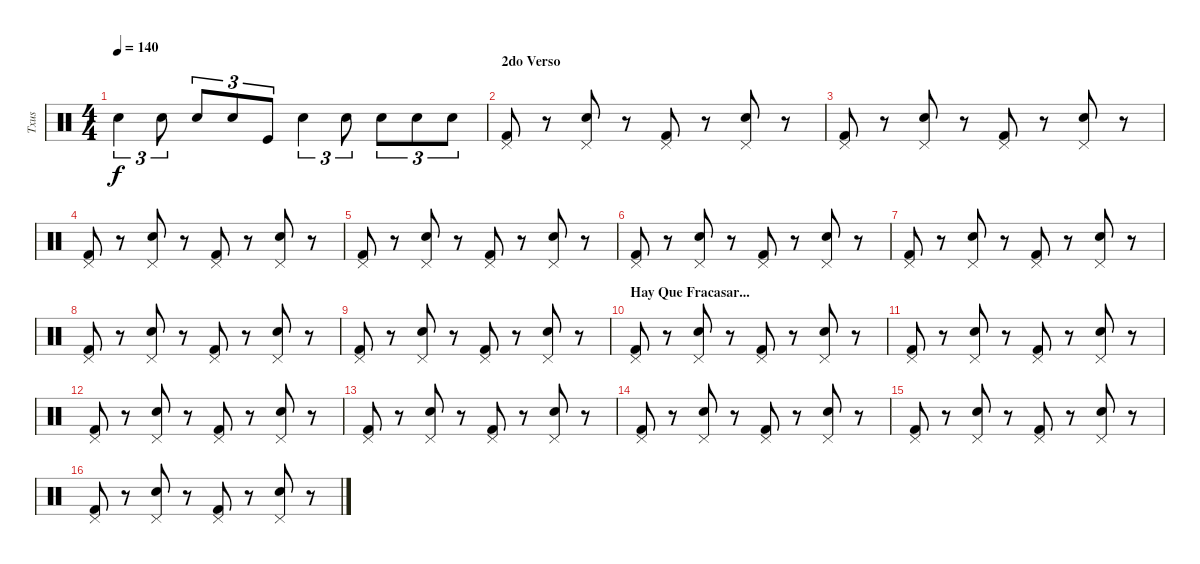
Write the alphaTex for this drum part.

\track ("Txus" "Txus") {instrument percussion}
\staff {score}
\articulation defaults
\ts (4 4)
\tempo 140
\clef neutral
\ks c "Snare (hit) 2".4{tu (3 2) dy f} "Snare (hit) 2".8{tu (3 2)} "Snare (hit) 2".8{tu (3 2)} "Snare (hit) 2".8{tu (3 2)} "Kick (hit)".8{tu (3 2)} "Snare (hit) 2".4{tu (3 2)} "Snare (hit) 2".8{tu (3 2)} "Snare (hit) 2".8{tu (3 2)} "Snare (hit) 2".8{tu (3 2)} "Snare (hit) 2".8{tu (3 2)}
|
\section ("" "2do Verso")
("Pedal Hi-Hat (hit)" "Kick (hit) 2").8 r.8 ("Pedal Hi-Hat (hit)" "Snare (hit) 2").8 r.8 ("Pedal Hi-Hat (hit)" "Kick (hit) 2").8 r.8 ("Pedal Hi-Hat (hit)" "Snare (hit) 2").8 r.8 |
("Pedal Hi-Hat (hit)" "Kick (hit) 2").8 r.8 ("Pedal Hi-Hat (hit)" "Snare (hit) 2").8 r.8 ("Pedal Hi-Hat (hit)" "Kick (hit) 2").8 r.8 ("Pedal Hi-Hat (hit)" "Snare (hit) 2").8 r.8 |
("Pedal Hi-Hat (hit)" "Kick (hit) 2").8 r.8 ("Pedal Hi-Hat (hit)" "Snare (hit) 2").8 r.8 ("Pedal Hi-Hat (hit)" "Kick (hit) 2").8 r.8 ("Pedal Hi-Hat (hit)" "Snare (hit) 2").8 r.8 |
("Pedal Hi-Hat (hit)" "Kick (hit) 2").8 r.8 ("Pedal Hi-Hat (hit)" "Snare (hit) 2").8 r.8 ("Pedal Hi-Hat (hit)" "Kick (hit) 2").8 r.8 ("Pedal Hi-Hat (hit)" "Snare (hit) 2").8 r.8 |
("Pedal Hi-Hat (hit)" "Kick (hit) 2").8 r.8 ("Pedal Hi-Hat (hit)" "Snare (hit) 2").8 r.8 ("Pedal Hi-Hat (hit)" "Kick (hit) 2").8 r.8 ("Pedal Hi-Hat (hit)" "Snare (hit) 2").8 r.8 |
("Pedal Hi-Hat (hit)" "Kick (hit) 2").8 r.8 ("Pedal Hi-Hat (hit)" "Snare (hit) 2").8 r.8 ("Pedal Hi-Hat (hit)" "Kick (hit) 2").8 r.8 ("Pedal Hi-Hat (hit)" "Snare (hit) 2").8 r.8 |
("Pedal Hi-Hat (hit)" "Kick (hit) 2").8 r.8 ("Pedal Hi-Hat (hit)" "Snare (hit) 2").8 r.8 ("Pedal Hi-Hat (hit)" "Kick (hit) 2").8 r.8 ("Pedal Hi-Hat (hit)" "Snare (hit) 2").8 r.8 |
("Pedal Hi-Hat (hit)" "Kick (hit) 2").8 r.8 ("Pedal Hi-Hat (hit)" "Snare (hit) 2").8 r.8 ("Pedal Hi-Hat (hit)" "Kick (hit) 2").8 r.8 ("Pedal Hi-Hat (hit)" "Snare (hit) 2").8 r.8 |
\section ("" "Hay Que Fracasar...")
("Pedal Hi-Hat (hit)" "Kick (hit) 2").8 r.8 ("Pedal Hi-Hat (hit)" "Snare (hit) 2").8 r.8 ("Pedal Hi-Hat (hit)" "Kick (hit) 2").8 r.8 ("Pedal Hi-Hat (hit)" "Snare (hit) 2").8 r.8 |
("Pedal Hi-Hat (hit)" "Kick (hit) 2").8 r.8 ("Pedal Hi-Hat (hit)" "Snare (hit) 2").8 r.8 ("Pedal Hi-Hat (hit)" "Kick (hit) 2").8 r.8 ("Pedal Hi-Hat (hit)" "Snare (hit) 2").8 r.8 |
("Pedal Hi-Hat (hit)" "Kick (hit) 2").8 r.8 ("Pedal Hi-Hat (hit)" "Snare (hit) 2").8 r.8 ("Pedal Hi-Hat (hit)" "Kick (hit) 2").8 r.8 ("Pedal Hi-Hat (hit)" "Snare (hit) 2").8 r.8 |
("Pedal Hi-Hat (hit)" "Kick (hit) 2").8 r.8 ("Pedal Hi-Hat (hit)" "Snare (hit) 2").8 r.8 ("Pedal Hi-Hat (hit)" "Kick (hit) 2").8 r.8 ("Pedal Hi-Hat (hit)" "Snare (hit) 2").8 r.8 |
("Pedal Hi-Hat (hit)" "Kick (hit) 2").8 r.8 ("Pedal Hi-Hat (hit)" "Snare (hit) 2").8 r.8 ("Pedal Hi-Hat (hit)" "Kick (hit) 2").8 r.8 ("Pedal Hi-Hat (hit)" "Snare (hit) 2").8 r.8 |
("Pedal Hi-Hat (hit)" "Kick (hit) 2").8 r.8 ("Pedal Hi-Hat (hit)" "Snare (hit) 2").8 r.8 ("Pedal Hi-Hat (hit)" "Kick (hit) 2").8 r.8 ("Pedal Hi-Hat (hit)" "Snare (hit) 2").8 r.8 |
("Pedal Hi-Hat (hit)" "Kick (hit) 2").8 r.8 ("Pedal Hi-Hat (hit)" "Snare (hit) 2").8 r.8 ("Pedal Hi-Hat (hit)" "Kick (hit) 2").8 r.8 ("Pedal Hi-Hat (hit)" "Snare (hit) 2").8 r.8
